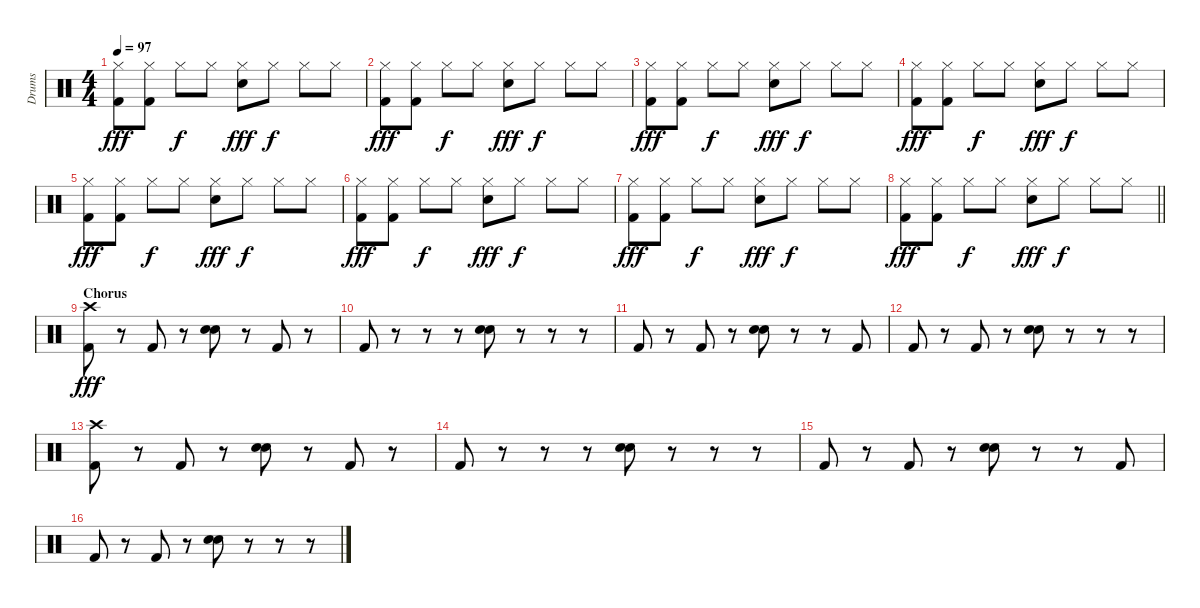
\track ("Drums" "Drums") {instrument percussion}
\staff {score}
\articulation defaults
\ts (4 4)
\tempo 97
\clef neutral
\ks c
("Hi-Hat (closed)" "Kick (hit) 2").8{dy fff} ("Hi-Hat (closed)" "Kick (hit) 2").8 "Hi-Hat (closed)".8{dy f} "Hi-Hat (closed)".8 ("Hi-Hat (closed)" "Electric Snare (hit)").8{dy fff} "Hi-Hat (closed)".8{dy f} "Hi-Hat (closed)".8 "Hi-Hat (closed)".8 |
("Hi-Hat (closed)" "Kick (hit) 2").8{dy fff} ("Hi-Hat (closed)" "Kick (hit) 2").8 "Hi-Hat (closed)".8{dy f} "Hi-Hat (closed)".8 ("Hi-Hat (closed)" "Electric Snare (hit)").8{dy fff} "Hi-Hat (closed)".8{dy f} "Hi-Hat (closed)".8 "Hi-Hat (closed)".8 |
("Hi-Hat (closed)" "Kick (hit) 2").8{dy fff} ("Hi-Hat (closed)" "Kick (hit) 2").8 "Hi-Hat (closed)".8{dy f} "Hi-Hat (closed)".8 ("Hi-Hat (closed)" "Electric Snare (hit)").8{dy fff} "Hi-Hat (closed)".8{dy f} "Hi-Hat (closed)".8 "Hi-Hat (closed)".8 |
("Hi-Hat (closed)" "Kick (hit) 2").8{dy fff} ("Hi-Hat (closed)" "Kick (hit) 2").8 "Hi-Hat (closed)".8{dy f} "Hi-Hat (closed)".8 ("Hi-Hat (closed)" "Electric Snare (hit)").8{dy fff} "Hi-Hat (closed)".8{dy f} "Hi-Hat (closed)".8 "Hi-Hat (closed)".8 |
("Hi-Hat (closed)" "Kick (hit) 2").8{dy fff} ("Hi-Hat (closed)" "Kick (hit) 2").8 "Hi-Hat (closed)".8{dy f} "Hi-Hat (closed)".8 ("Hi-Hat (closed)" "Electric Snare (hit)").8{dy fff} "Hi-Hat (closed)".8{dy f} "Hi-Hat (closed)".8 "Hi-Hat (closed)".8 |
("Hi-Hat (closed)" "Kick (hit) 2").8{dy fff} ("Hi-Hat (closed)" "Kick (hit) 2").8 "Hi-Hat (closed)".8{dy f} "Hi-Hat (closed)".8 ("Hi-Hat (closed)" "Electric Snare (hit)").8{dy fff} "Hi-Hat (closed)".8{dy f} "Hi-Hat (closed)".8 "Hi-Hat (closed)".8 |
("Hi-Hat (closed)" "Kick (hit) 2").8{dy fff} ("Hi-Hat (closed)" "Kick (hit) 2").8 "Hi-Hat (closed)".8{dy f} "Hi-Hat (closed)".8 ("Hi-Hat (closed)" "Electric Snare (hit)").8{dy fff} "Hi-Hat (closed)".8{dy f} "Hi-Hat (closed)".8 "Hi-Hat (closed)".8 |
\barLineRight lightlight
("Hi-Hat (closed)" "Kick (hit) 2").8{dy fff} ("Hi-Hat (closed)" "Kick (hit) 2").8 "Hi-Hat (closed)".8{dy f} "Hi-Hat (closed)".8 ("Hi-Hat (closed)" "Electric Snare (hit)").8{dy fff} "Hi-Hat (closed)".8{dy f} "Hi-Hat (closed)".8 "Hi-Hat (closed)".8 |
\section ("" "Chorus")
("Crash high (hit)" "Kick (hit) 2").8{dy fff} r.8 "Kick (hit) 2".8 r.8 ("Electric Snare (hit)" "Electric Snare (hit)").8 r.8 "Kick (hit) 2".8 r.8 |
"Kick (hit) 2".8 r.8 r.8 r.8 ("Electric Snare (hit)" "Electric Snare (hit)").8 r.8 r.8 r.8 |
"Kick (hit) 2".8 r.8 "Kick (hit) 2".8 r.8 ("Electric Snare (hit)" "Electric Snare (hit)").8 r.8 r.8 "Kick (hit) 2".8 |
"Kick (hit) 2".8 r.8 "Kick (hit) 2".8 r.8 ("Electric Snare (hit)" "Electric Snare (hit)").8 r.8 r.8 r.8 |
("Crash high (hit)" "Kick (hit) 2").8 r.8 "Kick (hit) 2".8 r.8 ("Electric Snare (hit)" "Electric Snare (hit)").8 r.8 "Kick (hit) 2".8 r.8 |
"Kick (hit) 2".8 r.8 r.8 r.8 ("Electric Snare (hit)" "Electric Snare (hit)").8 r.8 r.8 r.8 |
"Kick (hit) 2".8 r.8 "Kick (hit) 2".8 r.8 ("Electric Snare (hit)" "Electric Snare (hit)").8 r.8 r.8 "Kick (hit) 2".8 |
"Kick (hit) 2".8 r.8 "Kick (hit) 2".8 r.8 ("Electric Snare (hit)" "Electric Snare (hit)").8 r.8 r.8 r.8
